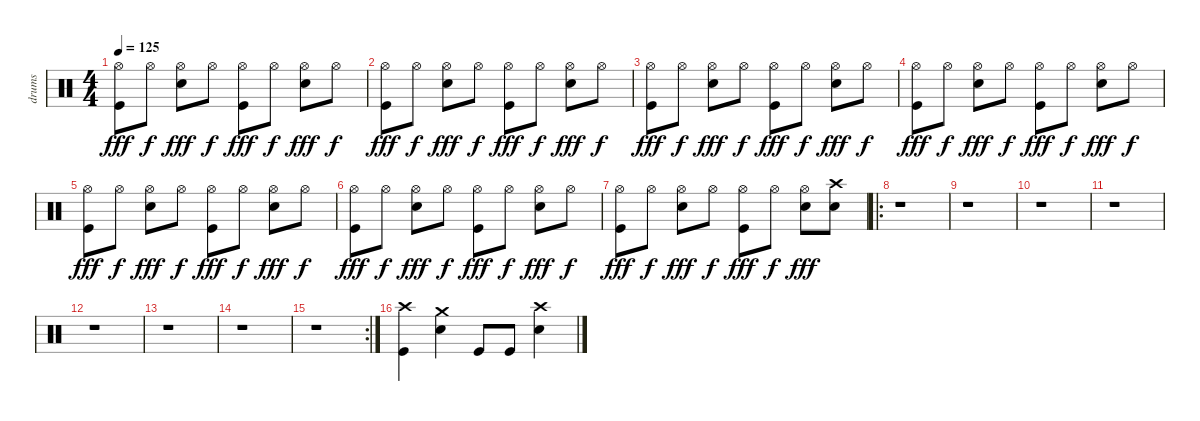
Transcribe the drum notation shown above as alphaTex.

\track ("drums" "drums") {instrument percussion}
\staff {score}
\articulation defaults
\ts (4 4)
\tempo 125
\clef neutral
\ks c
("Hi-Hat (open)" "Kick (hit)").8{dy fff} "Hi-Hat (open)".8{dy f} ("Hi-Hat (open)" "Snare (hit) 2").8{dy fff} "Hi-Hat (open)".8{dy f} ("Hi-Hat (open)" "Kick (hit)").8{dy fff} "Hi-Hat (open)".8{dy f} ("Hi-Hat (open)" "Snare (hit) 2").8{dy fff} "Hi-Hat (open)".8{dy f} |
("Hi-Hat (open)" "Kick (hit)").8{dy fff} "Hi-Hat (open)".8{dy f} ("Hi-Hat (open)" "Snare (hit) 2").8{dy fff} "Hi-Hat (open)".8{dy f} ("Hi-Hat (open)" "Kick (hit)").8{dy fff} "Hi-Hat (open)".8{dy f} ("Hi-Hat (open)" "Snare (hit) 2").8{dy fff} "Hi-Hat (open)".8{dy f} |
("Hi-Hat (open)" "Kick (hit)").8{dy fff} "Hi-Hat (open)".8{dy f} ("Hi-Hat (open)" "Snare (hit) 2").8{dy fff} "Hi-Hat (open)".8{dy f} ("Hi-Hat (open)" "Kick (hit)").8{dy fff} "Hi-Hat (open)".8{dy f} ("Hi-Hat (open)" "Snare (hit) 2").8{dy fff} "Hi-Hat (open)".8{dy f} |
("Hi-Hat (open)" "Kick (hit)").8{dy fff} "Hi-Hat (open)".8{dy f} ("Hi-Hat (open)" "Snare (hit) 2").8{dy fff} "Hi-Hat (open)".8{dy f} ("Hi-Hat (open)" "Kick (hit)").8{dy fff} "Hi-Hat (open)".8{dy f} ("Hi-Hat (open)" "Snare (hit) 2").8{dy fff} "Hi-Hat (open)".8{dy f} |
("Hi-Hat (open)" "Kick (hit)").8{dy fff} "Hi-Hat (open)".8{dy f} ("Hi-Hat (open)" "Snare (hit) 2").8{dy fff} "Hi-Hat (open)".8{dy f} ("Hi-Hat (open)" "Kick (hit)").8{dy fff} "Hi-Hat (open)".8{dy f} ("Hi-Hat (open)" "Snare (hit) 2").8{dy fff} "Hi-Hat (open)".8{dy f} |
("Hi-Hat (open)" "Kick (hit)").8{dy fff} "Hi-Hat (open)".8{dy f} ("Hi-Hat (open)" "Snare (hit) 2").8{dy fff} "Hi-Hat (open)".8{dy f} ("Hi-Hat (open)" "Kick (hit)").8{dy fff} "Hi-Hat (open)".8{dy f} ("Hi-Hat (open)" "Snare (hit) 2").8{dy fff} "Hi-Hat (open)".8{dy f} |
("Hi-Hat (open)" "Kick (hit)").8{dy fff} "Hi-Hat (open)".8{dy f} ("Hi-Hat (open)" "Snare (hit) 2").8{dy fff} "Hi-Hat (open)".8{dy f} ("Hi-Hat (open)" "Kick (hit)").8{dy fff} "Hi-Hat (open)".8{dy f} ("Hi-Hat (open)" "Snare (hit) 2").8{dy fff} ("Crash high (hit)" "Snare (hit) 2").8 |
\ro
r.1 |
r.1 |
r.1 |
r.1 |
r.1 |
r.1 |
r.1 |
\rc 2
r.1 |
("Crash high (hit)" "Kick (hit)").4 ("Crash medium (hit)" "Snare (hit) 2").4 "Kick (hit)".8 "Kick (hit)".8 ("Crash high (hit)" "Snare (hit) 2").4
